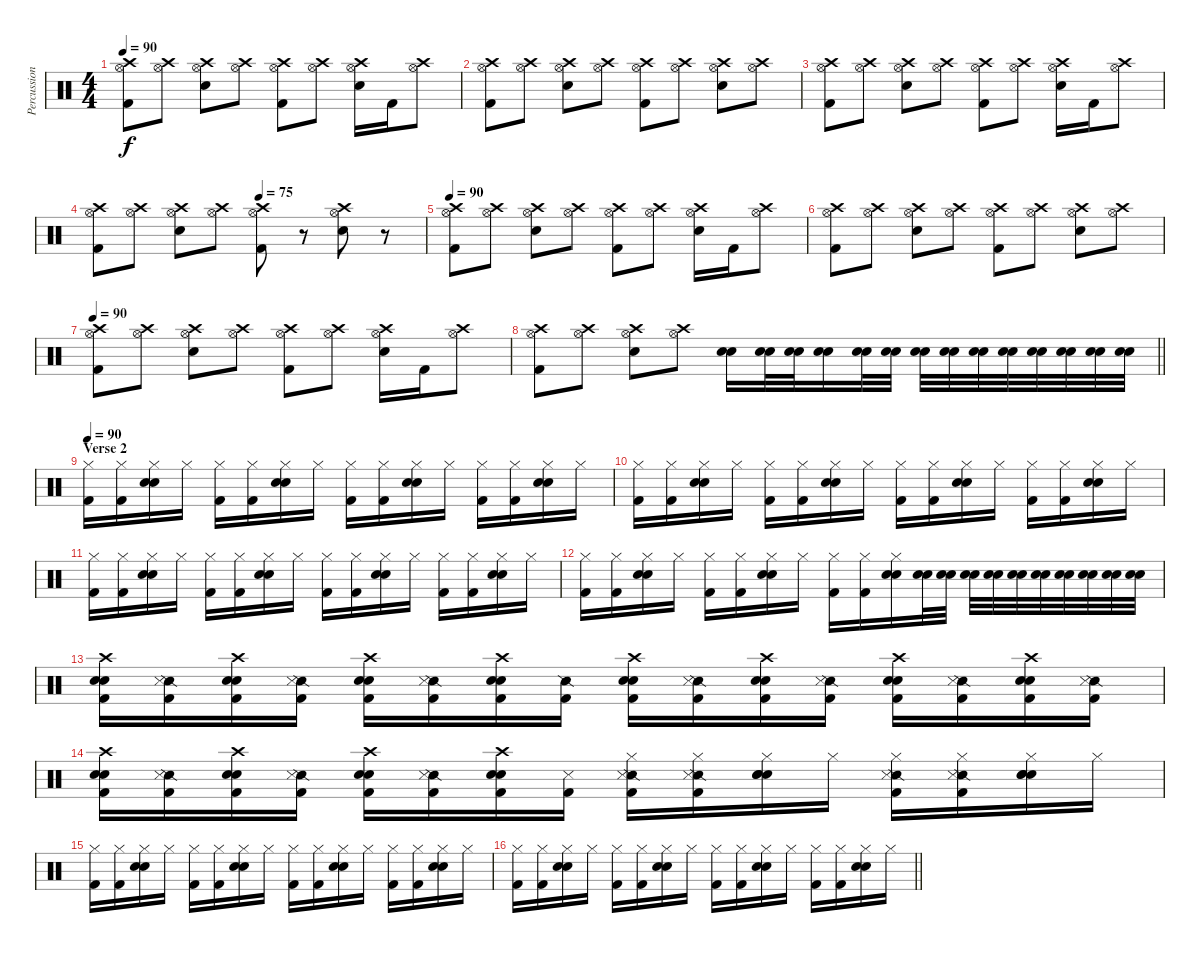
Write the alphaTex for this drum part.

\track ("Percussion" "Percussion") {instrument percussion}
\staff {score}
\articulation defaults
\ts (4 4)
\tempo 90
\clef neutral
\ks c
("Hi-Hat (open)" "Crash high (hit)" "Kick (hit) 2").8{dy f} ("Hi-Hat (open)" "Crash high (hit)").8 ("Hi-Hat (open)" "Crash high (hit)" "Snare (hit) 2").8 ("Hi-Hat (open)" "Crash high (hit)").8 ("Hi-Hat (open)" "Crash high (hit)" "Kick (hit) 2").8 ("Hi-Hat (open)" "Crash high (hit)").8 ("Hi-Hat (open)" "Crash high (hit)" "Snare (hit) 2").16 "Kick (hit) 2".16 ("Hi-Hat (open)" "Crash high (hit)").8 |
("Hi-Hat (open)" "Crash high (hit)" "Kick (hit) 2").8 ("Hi-Hat (open)" "Crash high (hit)").8 ("Hi-Hat (open)" "Crash high (hit)" "Snare (hit) 2").8 ("Hi-Hat (open)" "Crash high (hit)").8 ("Hi-Hat (open)" "Crash high (hit)" "Kick (hit) 2").8 ("Hi-Hat (open)" "Crash high (hit)").8 ("Hi-Hat (open)" "Crash high (hit)" "Snare (hit) 2").8 ("Hi-Hat (open)" "Crash high (hit)").8 |
("Hi-Hat (open)" "Crash high (hit)" "Kick (hit) 2").8 ("Hi-Hat (open)" "Crash high (hit)").8 ("Hi-Hat (open)" "Crash high (hit)" "Snare (hit) 2").8 ("Hi-Hat (open)" "Crash high (hit)").8 ("Hi-Hat (open)" "Crash high (hit)" "Kick (hit) 2").8 ("Hi-Hat (open)" "Crash high (hit)").8 ("Hi-Hat (open)" "Crash high (hit)" "Snare (hit) 2").16 "Kick (hit) 2".16 ("Hi-Hat (open)" "Crash high (hit)").8 |
\tempo (75 0.5)
("Hi-Hat (open)" "Crash high (hit)" "Kick (hit) 2").8 ("Hi-Hat (open)" "Crash high (hit)").8 ("Hi-Hat (open)" "Crash high (hit)" "Snare (hit) 2").8 ("Hi-Hat (open)" "Crash high (hit)").8 ("Hi-Hat (open)" "Crash high (hit)" "Kick (hit) 2").8 r.8 ("Hi-Hat (open)" "Crash high (hit)" "Snare (hit) 2").8 r.8 |
\tempo 90
("Hi-Hat (open)" "Crash high (hit)" "Kick (hit) 2").8 ("Hi-Hat (open)" "Crash high (hit)").8 ("Hi-Hat (open)" "Crash high (hit)" "Snare (hit) 2").8 ("Hi-Hat (open)" "Crash high (hit)").8 ("Hi-Hat (open)" "Crash high (hit)" "Kick (hit) 2").8 ("Hi-Hat (open)" "Crash high (hit)").8 ("Hi-Hat (open)" "Crash high (hit)" "Snare (hit) 2").16 "Kick (hit) 2".16 ("Hi-Hat (open)" "Crash high (hit)").8 |
("Hi-Hat (open)" "Crash high (hit)" "Kick (hit) 2").8 ("Hi-Hat (open)" "Crash high (hit)").8 ("Hi-Hat (open)" "Crash high (hit)" "Snare (hit) 2").8 ("Hi-Hat (open)" "Crash high (hit)").8 ("Hi-Hat (open)" "Crash high (hit)" "Kick (hit) 2").8 ("Hi-Hat (open)" "Crash high (hit)").8 ("Hi-Hat (open)" "Crash high (hit)" "Snare (hit) 2").8 ("Hi-Hat (open)" "Crash high (hit)").8 |
\tempo 90
("Hi-Hat (open)" "Crash high (hit)" "Kick (hit) 2").8 ("Hi-Hat (open)" "Crash high (hit)").8 ("Hi-Hat (open)" "Crash high (hit)" "Snare (hit) 2").8 ("Hi-Hat (open)" "Crash high (hit)").8 ("Hi-Hat (open)" "Crash high (hit)" "Kick (hit) 2").8 ("Hi-Hat (open)" "Crash high (hit)").8 ("Hi-Hat (open)" "Crash high (hit)" "Snare (hit) 2").16 "Kick (hit) 2".16 ("Hi-Hat (open)" "Crash high (hit)").8 |
\barLineRight lightlight
("Hi-Hat (open)" "Crash high (hit)" "Kick (hit) 2").8 ("Hi-Hat (open)" "Crash high (hit)").8 ("Hi-Hat (open)" "Crash high (hit)" "Snare (hit) 2").8 ("Hi-Hat (open)" "Crash high (hit)").8 ("Electric Snare (hit)" "Snare (hit) 2").16 ("Electric Snare (hit)" "Snare (hit) 2").32 ("Electric Snare (hit)" "Snare (hit) 2").32 ("Electric Snare (hit)" "Snare (hit) 2").16 ("Electric Snare (hit)" "Snare (hit) 2").32 ("Electric Snare (hit)" "Snare (hit) 2").32 ("Electric Snare (hit)" "Snare (hit) 2").32 ("Electric Snare (hit)" "Snare (hit) 2").32 ("Electric Snare (hit)" "Snare (hit) 2").32 ("Electric Snare (hit)" "Snare (hit) 2").32 ("Electric Snare (hit)" "Snare (hit) 2").32 ("Electric Snare (hit)" "Snare (hit) 2").32 ("Electric Snare (hit)" "Snare (hit) 2").32 ("Electric Snare (hit)" "Snare (hit) 2").32 |
\section ("" "Verse 2")
\tempo 90
("Hi-Hat (closed)" "Kick (hit) 2").16 ("Hi-Hat (closed)" "Kick (hit) 2").16 ("Electric Snare (hit)" "Hi-Hat (closed)" "Snare (hit) 2").16 "Hi-Hat (closed)".16 ("Hi-Hat (closed)" "Kick (hit) 2").16 ("Hi-Hat (closed)" "Kick (hit) 2").16 ("Electric Snare (hit)" "Hi-Hat (closed)" "Snare (hit) 2").16 "Hi-Hat (closed)".16 ("Hi-Hat (closed)" "Kick (hit) 2").16 ("Hi-Hat (closed)" "Kick (hit) 2").16 ("Electric Snare (hit)" "Hi-Hat (closed)" "Snare (hit) 2").16 "Hi-Hat (closed)".16 ("Hi-Hat (closed)" "Kick (hit) 2").16 ("Hi-Hat (closed)" "Kick (hit) 2").16 ("Electric Snare (hit)" "Hi-Hat (closed)" "Snare (hit) 2").16 "Hi-Hat (closed)".16 |
("Hi-Hat (closed)" "Kick (hit) 2").16 ("Hi-Hat (closed)" "Kick (hit) 2").16 ("Electric Snare (hit)" "Hi-Hat (closed)" "Snare (hit) 2").16 "Hi-Hat (closed)".16 ("Hi-Hat (closed)" "Kick (hit) 2").16 ("Hi-Hat (closed)" "Kick (hit) 2").16 ("Electric Snare (hit)" "Hi-Hat (closed)" "Snare (hit) 2").16 "Hi-Hat (closed)".16 ("Hi-Hat (closed)" "Kick (hit) 2").16 ("Hi-Hat (closed)" "Kick (hit) 2").16 ("Electric Snare (hit)" "Hi-Hat (closed)" "Snare (hit) 2").16 "Hi-Hat (closed)".16 ("Hi-Hat (closed)" "Kick (hit) 2").16 ("Hi-Hat (closed)" "Kick (hit) 2").16 ("Electric Snare (hit)" "Hi-Hat (closed)" "Snare (hit) 2").16 "Hi-Hat (closed)".16 |
("Hi-Hat (closed)" "Kick (hit) 2").16 ("Hi-Hat (closed)" "Kick (hit) 2").16 ("Electric Snare (hit)" "Hi-Hat (closed)" "Snare (hit) 2").16 "Hi-Hat (closed)".16 ("Hi-Hat (closed)" "Kick (hit) 2").16 ("Hi-Hat (closed)" "Kick (hit) 2").16 ("Electric Snare (hit)" "Hi-Hat (closed)" "Snare (hit) 2").16 "Hi-Hat (closed)".16 ("Hi-Hat (closed)" "Kick (hit) 2").16 ("Hi-Hat (closed)" "Kick (hit) 2").16 ("Electric Snare (hit)" "Hi-Hat (closed)" "Snare (hit) 2").16 "Hi-Hat (closed)".16 ("Hi-Hat (closed)" "Kick (hit) 2").16 ("Hi-Hat (closed)" "Kick (hit) 2").16 ("Electric Snare (hit)" "Hi-Hat (closed)" "Snare (hit) 2").16 "Hi-Hat (closed)".16 |
("Hi-Hat (closed)" "Kick (hit) 2").16 ("Hi-Hat (closed)" "Kick (hit) 2").16 ("Electric Snare (hit)" "Hi-Hat (closed)" "Snare (hit) 2").16 "Hi-Hat (closed)".16 ("Hi-Hat (closed)" "Kick (hit) 2").16 ("Hi-Hat (closed)" "Kick (hit) 2").16 ("Electric Snare (hit)" "Hi-Hat (closed)" "Snare (hit) 2").16 "Hi-Hat (closed)".16 ("Hi-Hat (closed)" "Kick (hit) 2").16 ("Hi-Hat (closed)" "Kick (hit) 2").16 ("Electric Snare (hit)" "Hi-Hat (closed)" "Snare (hit) 2").16 ("Electric Snare (hit)" "Snare (hit) 2").32 ("Electric Snare (hit)" "Snare (hit) 2").32 ("Electric Snare (hit)" "Snare (hit) 2").32 ("Electric Snare (hit)" "Snare (hit) 2").32 ("Electric Snare (hit)" "Snare (hit) 2").32 ("Electric Snare (hit)" "Snare (hit) 2").32 ("Electric Snare (hit)" "Snare (hit) 2").32 ("Electric Snare (hit)" "Snare (hit) 2").32 ("Electric Snare (hit)" "Snare (hit) 2").32 ("Electric Snare (hit)" "Snare (hit) 2").32 |
("Electric Snare (hit)" "Crash high (hit)" "Snare (hit) 2" "Kick (hit) 2").16 ("Snare (side stick) 2" "Metronome (hit)" "Kick (hit) 2").16 ("Electric Snare (hit)" "Crash high (hit)" "Snare (hit) 2" "Kick (hit) 2").16 ("Snare (side stick) 2" "Metronome (hit)" "Kick (hit) 2").16 ("Electric Snare (hit)" "Crash high (hit)" "Snare (hit) 2" "Kick (hit) 2").16 ("Snare (side stick) 2" "Metronome (hit)" "Kick (hit) 2").16 ("Electric Snare (hit)" "Crash high (hit)" "Snare (hit) 2" "Kick (hit) 2").16 ("Snare (side stick) 2" "Kick (hit) 2").16 ("Electric Snare (hit)" "Crash high (hit)" "Snare (hit) 2" "Kick (hit) 2").16 ("Snare (side stick) 2" "Metronome (hit)" "Kick (hit) 2").16 ("Electric Snare (hit)" "Crash high (hit)" "Snare (hit) 2" "Kick (hit) 2").16 ("Snare (side stick) 2" "Metronome (hit)" "Kick (hit) 2").16 ("Electric Snare (hit)" "Crash high (hit)" "Snare (hit) 2" "Kick (hit) 2").16 ("Snare (side stick) 2" "Metronome (hit)" "Kick (hit) 2").16 ("Electric Snare (hit)" "Crash high (hit)" "Snare (hit) 2" "Kick (hit) 2").16 ("Snare (side stick) 2" "Metronome (hit)" "Kick (hit) 2").16 |
("Electric Snare (hit)" "Crash high (hit)" "Snare (hit) 2" "Kick (hit) 2").16 ("Snare (side stick) 2" "Metronome (hit)" "Kick (hit) 2").16 ("Electric Snare (hit)" "Crash high (hit)" "Snare (hit) 2" "Kick (hit) 2").16 ("Snare (side stick) 2" "Metronome (hit)" "Kick (hit) 2").16 ("Electric Snare (hit)" "Crash high (hit)" "Snare (hit) 2" "Kick (hit) 2").16 ("Snare (side stick) 2" "Metronome (hit)" "Kick (hit) 2").16 ("Electric Snare (hit)" "Crash high (hit)" "Snare (hit) 2" "Kick (hit) 2").16 ("Metronome (hit)" "Kick (hit) 2").16 ("Snare (side stick) 2" "Metronome (hit)" "Hi-Hat (closed)" "Kick (hit) 2").16 ("Snare (side stick) 2" "Metronome (hit)" "Hi-Hat (closed)" "Kick (hit) 2").16 ("Electric Snare (hit)" "Electric Snare (hit)" "Hi-Hat (closed)" "Snare (hit) 2").16 "Hi-Hat (closed)".16 ("Snare (side stick) 2" "Metronome (hit)" "Hi-Hat (closed)" "Kick (hit) 2").16 ("Snare (side stick) 2" "Metronome (hit)" "Hi-Hat (closed)" "Kick (hit) 2").16 ("Electric Snare (hit)" "Electric Snare (hit)" "Hi-Hat (closed)" "Snare (hit) 2").16 "Hi-Hat (closed)".16 |
("Hi-Hat (closed)" "Kick (hit) 2").16 ("Hi-Hat (closed)" "Kick (hit) 2").16 ("Electric Snare (hit)" "Hi-Hat (closed)" "Snare (hit) 2").16 "Hi-Hat (closed)".16 ("Hi-Hat (closed)" "Kick (hit) 2").16 ("Hi-Hat (closed)" "Kick (hit) 2").16 ("Electric Snare (hit)" "Hi-Hat (closed)" "Snare (hit) 2").16 "Hi-Hat (closed)".16 ("Hi-Hat (closed)" "Kick (hit) 2").16 ("Hi-Hat (closed)" "Kick (hit) 2").16 ("Electric Snare (hit)" "Hi-Hat (closed)" "Snare (hit) 2").16 "Hi-Hat (closed)".16 ("Hi-Hat (closed)" "Kick (hit) 2").16 ("Hi-Hat (closed)" "Kick (hit) 2").16 ("Electric Snare (hit)" "Hi-Hat (closed)" "Snare (hit) 2").16 "Hi-Hat (closed)".16 |
\barLineRight lightlight
("Hi-Hat (closed)" "Kick (hit) 2").16 ("Hi-Hat (closed)" "Kick (hit) 2").16 ("Electric Snare (hit)" "Hi-Hat (closed)" "Snare (hit) 2").16 "Hi-Hat (closed)".16 ("Hi-Hat (closed)" "Kick (hit) 2").16 ("Hi-Hat (closed)" "Kick (hit) 2").16 ("Electric Snare (hit)" "Hi-Hat (closed)" "Snare (hit) 2").16 "Hi-Hat (closed)".16 ("Hi-Hat (closed)" "Kick (hit) 2").16 ("Hi-Hat (closed)" "Kick (hit) 2").16 ("Electric Snare (hit)" "Hi-Hat (closed)" "Snare (hit) 2").16 "Hi-Hat (closed)".16 ("Hi-Hat (closed)" "Kick (hit) 2").16 ("Hi-Hat (closed)" "Kick (hit) 2").16 ("Electric Snare (hit)" "Hi-Hat (closed)" "Snare (hit) 2").16 "Hi-Hat (closed)".16
